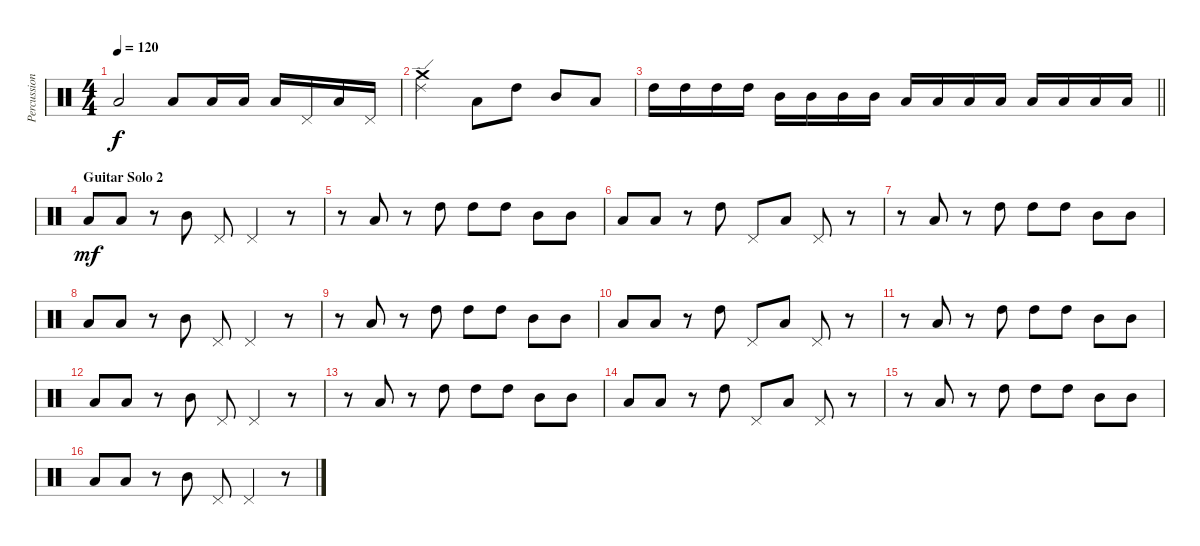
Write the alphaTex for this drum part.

\track ("Percussion" "Percussion") {instrument percussion}
\staff {score}
\articulation defaults
\ts (4 4)
\tempo 120
\clef neutral
\ks c "Low Tom (hit)".2{dy f} "Low Tom (hit)".8 "Low Tom (hit)".16 "Low Tom (hit)".16 "Low Tom (hit)".16 "Pedal Hi-Hat (hit)".16 "Low Tom (hit)".16 "Pedal Hi-Hat (hit)".16
|
("Crash medium (hit)" "Ride (edge) 2").2 "Low Tom (hit)".8 "High Tom (hit)".8 "Mid Tom (hit)".8 "Low Tom (hit)".8 |
\barLineRight lightlight "High Tom (hit)".16 "High Tom (hit)".16 "High Tom (hit)".16 "High Tom (hit)".16 "Mid Tom (hit)".16 "Mid Tom (hit)".16 "Mid Tom (hit)".16 "Mid Tom (hit)".16 "Low Tom (hit)".16 "Low Tom (hit)".16 "Low Tom (hit)".16 "Low Tom (hit)".16 "Low Floor Tom (hit)".16 "Low Floor Tom (hit)".16 "Low Floor Tom (hit)".16 "Low Floor Tom (hit)".16
|
\section ("" "Guitar Solo 2")
"Low Tom (hit)".8{dy mf} "Low Tom (hit)".8 r.8 "Mid Tom (hit)".8 "Pedal Hi-Hat (hit)".8 "Pedal Hi-Hat (hit)".4 r.8 |
r.8 "Low Tom (hit)".8 r.8 "High Tom (hit)".8 "High Tom (hit)".8 "High Tom (hit)".8 "Mid Tom (hit)".8 "Mid Tom (hit)".8 |
"Low Tom (hit)".8 "Low Tom (hit)".8 r.8 "High Tom (hit)".8 "Pedal Hi-Hat (hit)".8 "Low Tom (hit)".8 "Pedal Hi-Hat (hit)".8 r.8 |
r.8 "Low Tom (hit)".8 r.8 "High Tom (hit)".8 "High Tom (hit)".8 "High Tom (hit)".8 "Mid Tom (hit)".8 "Mid Tom (hit)".8 |
"Low Tom (hit)".8 "Low Tom (hit)".8 r.8 "Mid Tom (hit)".8 "Pedal Hi-Hat (hit)".8 "Pedal Hi-Hat (hit)".4 r.8 |
r.8 "Low Tom (hit)".8 r.8 "High Tom (hit)".8 "High Tom (hit)".8 "High Tom (hit)".8 "Mid Tom (hit)".8 "Mid Tom (hit)".8 |
"Low Tom (hit)".8 "Low Tom (hit)".8 r.8 "High Tom (hit)".8 "Pedal Hi-Hat (hit)".8 "Low Tom (hit)".8 "Pedal Hi-Hat (hit)".8 r.8 |
r.8 "Low Tom (hit)".8 r.8 "High Tom (hit)".8 "High Tom (hit)".8 "High Tom (hit)".8 "Mid Tom (hit)".8 "Mid Tom (hit)".8 |
"Low Tom (hit)".8 "Low Tom (hit)".8 r.8 "Mid Tom (hit)".8 "Pedal Hi-Hat (hit)".8 "Pedal Hi-Hat (hit)".4 r.8 |
r.8 "Low Tom (hit)".8 r.8 "High Tom (hit)".8 "High Tom (hit)".8 "High Tom (hit)".8 "Mid Tom (hit)".8 "Mid Tom (hit)".8 |
"Low Tom (hit)".8 "Low Tom (hit)".8 r.8 "High Tom (hit)".8 "Pedal Hi-Hat (hit)".8 "Low Tom (hit)".8 "Pedal Hi-Hat (hit)".8 r.8 |
r.8 "Low Tom (hit)".8 r.8 "High Tom (hit)".8 "High Tom (hit)".8 "High Tom (hit)".8 "Mid Tom (hit)".8 "Mid Tom (hit)".8 |
"Low Tom (hit)".8 "Low Tom (hit)".8 r.8 "Mid Tom (hit)".8 "Pedal Hi-Hat (hit)".8 "Pedal Hi-Hat (hit)".4 r.8
